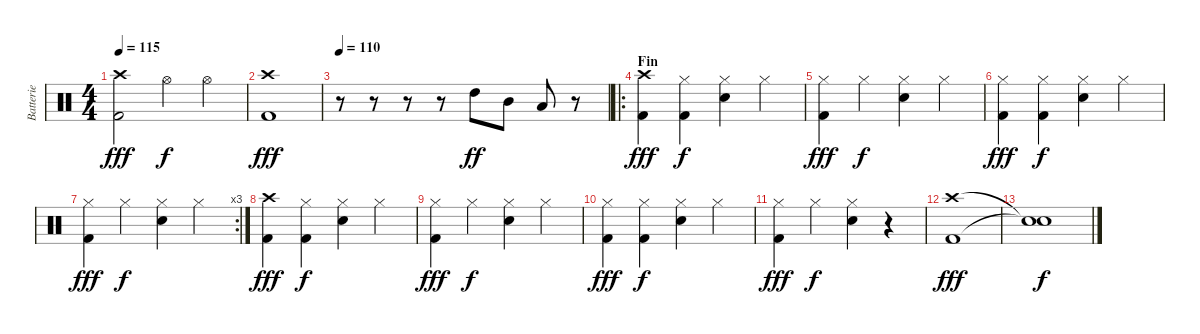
\track ("Batterie" "Batterie") {instrument percussion}
\staff {score}
\articulation defaults
\ts (4 4)
\tempo 115
\clef neutral
\ks c
("Crash high (hit)" "Kick (hit) 2").2{dy fff} "Hi-Hat (open)".4{dy f} "Hi-Hat (open)".4 |
("Crash high (hit)" "Kick (hit) 2").1{dy fff} |
\tempo 110
r.8 r.8 r.8 r.8 "High Tom (hit)".8{dy ff} "Mid Tom (hit)".8 "Low Tom (hit)".8 r.8 |
\ro
\section ("" "Fin")
("Crash high (hit)" "Kick (hit) 2").4{dy fff} ("Hi-Hat (closed)" "Kick (hit) 2").4{dy f} ("Hi-Hat (closed)" "Electric Snare (hit)").4 "Hi-Hat (closed)".4 |
("Hi-Hat (closed)" "Kick (hit) 2").4{dy fff} "Hi-Hat (closed)".4{dy f} ("Hi-Hat (closed)" "Electric Snare (hit)").4 "Hi-Hat (closed)".4 |
("Hi-Hat (closed)" "Kick (hit) 2").4{dy fff} ("Hi-Hat (closed)" "Kick (hit) 2").4{dy f} ("Hi-Hat (closed)" "Electric Snare (hit)").4 "Hi-Hat (closed)".4 |
\rc 3
("Hi-Hat (closed)" "Kick (hit) 2").4{dy fff} "Hi-Hat (closed)".4{dy f} ("Hi-Hat (closed)" "Electric Snare (hit)").4 "Hi-Hat (closed)".4 |
("Crash high (hit)" "Kick (hit) 2").4{dy fff} ("Hi-Hat (closed)" "Kick (hit) 2").4{dy f} ("Hi-Hat (closed)" "Electric Snare (hit)").4 "Hi-Hat (closed)".4 |
("Hi-Hat (closed)" "Kick (hit) 2").4{dy fff} "Hi-Hat (closed)".4{dy f} ("Hi-Hat (closed)" "Electric Snare (hit)").4 "Hi-Hat (closed)".4 |
("Hi-Hat (closed)" "Kick (hit) 2").4{dy fff} ("Hi-Hat (closed)" "Kick (hit) 2").4{dy f} ("Hi-Hat (closed)" "Electric Snare (hit)").4 "Hi-Hat (closed)".4 |
("Hi-Hat (closed)" "Kick (hit) 2").4{dy fff} "Hi-Hat (closed)".4{dy f} ("Hi-Hat (closed)" "Electric Snare (hit)").4 r.4 |
("Crash high (hit)" "Kick (hit) 2").1{dy fff volume 4} |
("Snare (hit)"{t} "Snare (hit)"{t}).1{dy f}
